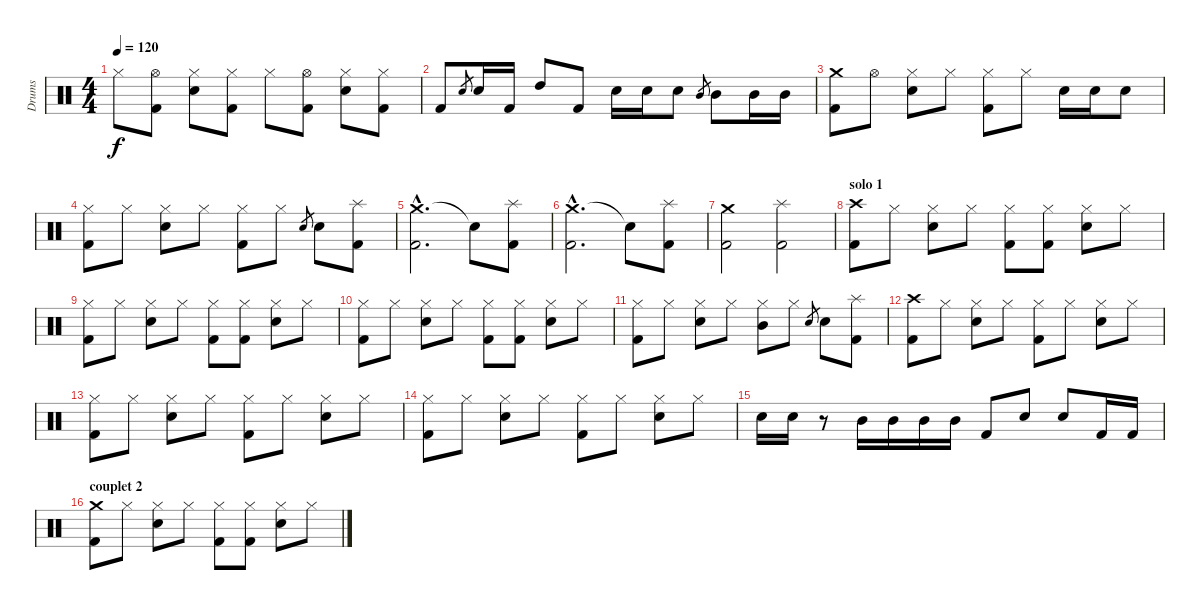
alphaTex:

\track ("Drums" "Drums") {instrument percussion}
\staff {score}
\articulation defaults
\ts (4 4)
\tempo 120
\clef neutral
\ks c "Hi-Hat (closed)".8{dy f}
("Hi-Hat (open)" "Kick (hit) 2").8 ("Hi-Hat (closed)" "Snare (hit) 2").8 ("Hi-Hat (closed)" "Kick (hit) 2").8 "Hi-Hat (closed)".8 ("Hi-Hat (open)" "Kick (hit) 2").8 ("Hi-Hat (closed)" "Snare (hit) 2").8 ("Hi-Hat (closed)" "Kick (hit) 2").8 |
"Kick (hit) 2".8 "Snare (hit) 2".8{gr} "Snare (hit) 2".16 "Kick (hit) 2".16 "High Tom (hit)".8 "Kick (hit) 2".8 "Snare (hit) 2".16 "Snare (hit) 2".16 "Snare (hit) 2".8 "Mid Tom (hit)".8{gr} "Mid Tom (hit)".8 "Mid Tom (hit)".16 "Mid Tom (hit)".16 |
("Crash medium (hit)" "Kick (hit) 2").8 "Hi-Hat (open)".8 ("Hi-Hat (closed)" "Snare (hit) 2").8 "Hi-Hat (closed)".8 ("Hi-Hat (closed)" "Kick (hit) 2").8 "Hi-Hat (closed)".8 "Snare (hit) 2".16 "Snare (hit) 2".16 "Snare (hit) 2".8 |
("Hi-Hat (closed)" "Kick (hit) 2").8 "Hi-Hat (closed)".8 ("Hi-Hat (closed)" "Snare (hit) 2").8 "Hi-Hat (closed)".8 ("Hi-Hat (closed)" "Kick (hit) 2").8 "Hi-Hat (closed)".8 "Snare (hit) 2".8{gr} "Snare (hit) 2".8 ("Splash (hit)" "Kick (hit) 2").8 |
("Crash medium (hit)"{hac} "Kick (hit) 2"{hac}).2{d} "Snare (hit)"{t}.8 ("Splash (hit)" "Kick (hit) 2").8 |
("Crash medium (hit)"{hac} "Kick (hit) 2"{hac}).2{d} "Snare (hit)"{t}.8 ("Splash (hit)" "Kick (hit) 2").8 |
("Crash medium (hit)" "Kick (hit) 2").2 ("Splash (hit)" "Kick (hit) 2").2 |
\section ("" "solo 1")
("Crash high (hit)" "Kick (hit) 2").8 "Hi-Hat (closed)".8 ("Hi-Hat (closed)" "Snare (hit) 2").8 "Hi-Hat (closed)".8 ("Hi-Hat (closed)" "Kick (hit) 2").8 ("Hi-Hat (closed)" "Kick (hit) 2").8 ("Hi-Hat (closed)" "Snare (hit) 2").8 "Hi-Hat (closed)".8 |
("Hi-Hat (closed)" "Kick (hit) 2").8 "Hi-Hat (closed)".8 ("Hi-Hat (closed)" "Snare (hit) 2").8 "Hi-Hat (closed)".8 ("Hi-Hat (closed)" "Kick (hit) 2").8 ("Hi-Hat (closed)" "Kick (hit) 2").8 ("Hi-Hat (closed)" "Snare (hit) 2").8 "Hi-Hat (closed)".8 |
("Hi-Hat (closed)" "Kick (hit) 2").8 "Hi-Hat (closed)".8 ("Hi-Hat (closed)" "Snare (hit) 2").8 "Hi-Hat (closed)".8 ("Hi-Hat (closed)" "Kick (hit) 2").8 ("Hi-Hat (closed)" "Kick (hit) 2").8 ("Hi-Hat (closed)" "Snare (hit) 2").8 "Hi-Hat (closed)".8 |
("Hi-Hat (closed)" "Kick (hit) 2").8 "Hi-Hat (closed)".8 ("Hi-Hat (closed)" "Snare (hit) 2").8 "Hi-Hat (closed)".8 ("Hi-Hat (closed)" "Mid Tom (hit)").8 "Hi-Hat (closed)".8 "Snare (hit) 2".8{gr} "Snare (hit) 2".8 ("Splash (hit)" "Kick (hit) 2").8 |
("Crash high (hit)" "Kick (hit) 2").8 "Hi-Hat (closed)".8 ("Hi-Hat (closed)" "Snare (hit) 2").8 "Hi-Hat (closed)".8 ("Hi-Hat (closed)" "Kick (hit) 2").8 "Hi-Hat (closed)".8 ("Hi-Hat (closed)" "Snare (hit) 2").8 "Hi-Hat (closed)".8 |
("Hi-Hat (closed)" "Kick (hit) 2").8 "Hi-Hat (closed)".8 ("Hi-Hat (closed)" "Snare (hit) 2").8 "Hi-Hat (closed)".8 ("Hi-Hat (closed)" "Kick (hit) 2").8 "Hi-Hat (closed)".8 ("Hi-Hat (closed)" "Snare (hit) 2").8 "Hi-Hat (closed)".8 |
("Hi-Hat (closed)" "Kick (hit) 2").8 "Hi-Hat (closed)".8 ("Hi-Hat (closed)" "Snare (hit) 2").8 "Hi-Hat (closed)".8 ("Hi-Hat (closed)" "Kick (hit) 2").8 "Hi-Hat (closed)".8 ("Hi-Hat (closed)" "Snare (hit) 2").8 "Hi-Hat (closed)".8 |
"Snare (hit) 2".16 "Snare (hit) 2".16 r.8 "Mid Tom (hit)".16 "Mid Tom (hit)".16 "Mid Tom (hit)".16 "Mid Tom (hit)".16 "Kick (hit) 2".8 "Snare (hit) 2".8 "Snare (hit) 2".8 "Kick (hit) 2".16 "Kick (hit) 2".16 |
\section ("" "couplet 2")
("Crash medium (hit)" "Kick (hit) 2").8 "Hi-Hat (closed)".8 ("Hi-Hat (closed)" "Snare (hit) 2").8 "Hi-Hat (closed)".8 ("Hi-Hat (closed)" "Kick (hit) 2").8 ("Hi-Hat (closed)" "Kick (hit) 2").8 ("Hi-Hat (closed)" "Snare (hit) 2").8 "Hi-Hat (closed)".8
